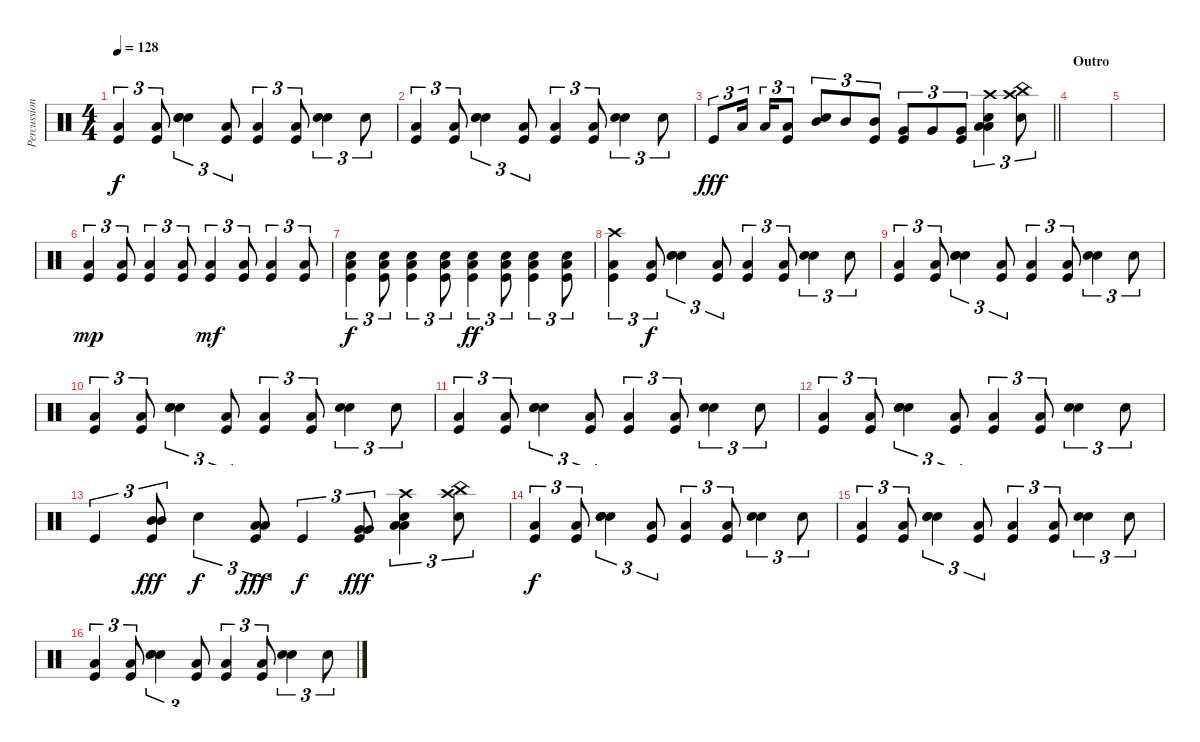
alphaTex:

\track ("Percussion" "Percussion") {instrument percussion}
\staff {score}
\articulation defaults
\ts (4 4)
\tempo 128
\clef neutral
\ks c
("Low Floor Tom (hit)" "Kick (hit)").4{tu (3 2) dy f} ("Low Floor Tom (hit)" "Kick (hit)").8{tu (3 2)} ("Hand Clap (hit)" "Electric Snare (hit)" "Snare (hit) 2").4{tu (3 2)} ("Low Floor Tom (hit)" "Kick (hit)").8{tu (3 2)} ("Low Floor Tom (hit)" "Kick (hit)").4{tu (3 2)} ("Low Floor Tom (hit)" "Kick (hit)").8{tu (3 2)} ("Hand Clap (hit)" "Electric Snare (hit)").4{tu (3 2)} "Hand Clap (hit)".8{tu (3 2)} |
("Low Floor Tom (hit)" "Kick (hit)").4{tu (3 2)} ("Low Floor Tom (hit)" "Kick (hit)").8{tu (3 2)} ("Hand Clap (hit)" "Electric Snare (hit)" "Snare (hit) 2").4{tu (3 2)} ("Low Floor Tom (hit)" "Kick (hit)").8{tu (3 2)} ("Low Floor Tom (hit)" "Kick (hit)").4{tu (3 2)} ("Low Floor Tom (hit)" "Kick (hit)").8{tu (3 2)} ("Hand Clap (hit)" "Electric Snare (hit)").4{tu (3 2)} "Hand Clap (hit)".8{tu (3 2)} |
\barLineRight lightlight "Kick (hit)".8{tu (3 2) dy fff} "Low Tom (hit)".16{tu (3 2) beam splitsecondary} "Low Tom (hit)".16{tu (3 2)}
("Low Tom (hit)" "Kick (hit)").8{tu (3 2)} ("Hand Clap (hit)" "Mid Tom (hit)").8{tu (3 2)} "Mid Tom (hit)".8{tu (3 2)} ("Mid Tom (hit)" "Kick (hit)").8{tu (3 2)} ("Very Low Tom (hit)" "Kick (hit)").8{tu (3 2)} "Very Low Tom (hit)".8{tu (3 2)} ("Very Low Tom (hit)" "Kick (hit)").8{tu (3 2)} ("Crash high (hit)" "Hand Clap (hit)" "Low Floor Tom (hit)" "Low Floor Tom (hit)").4{tu (3 2)} ("Crash high (hit)" "Hand Clap (hit)" "China (hit)").8{tu (3 2)} |
\section ("" "Outro")
|
|
("Low Floor Tom (hit)" "Kick (hit)").4{tu (3 2) dy mp} ("Low Floor Tom (hit)" "Kick (hit)").8{tu (3 2)} ("Low Floor Tom (hit)" "Kick (hit)").4{tu (3 2)} ("Low Floor Tom (hit)" "Kick (hit)").8{tu (3 2)} ("Low Floor Tom (hit)" "Kick (hit)").4{tu (3 2) dy mf} ("Low Floor Tom (hit)" "Kick (hit)").8{tu (3 2)} ("Low Floor Tom (hit)" "Kick (hit)").4{tu (3 2)} ("Low Floor Tom (hit)" "Kick (hit)").8{tu (3 2)} |
("Electric Snare (hit)" "Low Floor Tom (hit)" "Kick (hit)").4{tu (3 2) dy f} ("Electric Snare (hit)" "Low Floor Tom (hit)" "Kick (hit)").8{tu (3 2)} ("Electric Snare (hit)" "Low Floor Tom (hit)" "Kick (hit)").4{tu (3 2)} ("Electric Snare (hit)" "Low Floor Tom (hit)" "Kick (hit)").8{tu (3 2)} ("Electric Snare (hit)" "Low Floor Tom (hit)" "Kick (hit)").4{tu (3 2) dy ff} ("Electric Snare (hit)" "Low Floor Tom (hit)" "Kick (hit)").8{tu (3 2)} ("Electric Snare (hit)" "Low Floor Tom (hit)" "Kick (hit)").4{tu (3 2)} ("Electric Snare (hit)" "Low Floor Tom (hit)" "Kick (hit)").8{tu (3 2)} |
("Crash high (hit)" "Low Floor Tom (hit)" "Kick (hit)").4{tu (3 2)} ("Low Floor Tom (hit)" "Kick (hit)").8{tu (3 2) dy f} ("Hand Clap (hit)" "Electric Snare (hit)" "Snare (hit) 2").4{tu (3 2)} ("Low Floor Tom (hit)" "Kick (hit)").8{tu (3 2)} ("Low Floor Tom (hit)" "Kick (hit)").4{tu (3 2)} ("Low Floor Tom (hit)" "Kick (hit)").8{tu (3 2)} ("Hand Clap (hit)" "Electric Snare (hit)").4{tu (3 2)} "Hand Clap (hit)".8{tu (3 2)} |
("Low Floor Tom (hit)" "Kick (hit)").4{tu (3 2)} ("Low Floor Tom (hit)" "Kick (hit)").8{tu (3 2)} ("Hand Clap (hit)" "Electric Snare (hit)" "Snare (hit) 2").4{tu (3 2)} ("Low Floor Tom (hit)" "Kick (hit)").8{tu (3 2)} ("Low Floor Tom (hit)" "Kick (hit)").4{tu (3 2)} ("Low Floor Tom (hit)" "Kick (hit)").8{tu (3 2)} ("Hand Clap (hit)" "Electric Snare (hit)").4{tu (3 2)} "Hand Clap (hit)".8{tu (3 2)} |
("Low Floor Tom (hit)" "Kick (hit)").4{tu (3 2)} ("Low Floor Tom (hit)" "Kick (hit)").8{tu (3 2)} ("Hand Clap (hit)" "Electric Snare (hit)" "Snare (hit) 2").4{tu (3 2)} ("Low Floor Tom (hit)" "Kick (hit)").8{tu (3 2)} ("Low Floor Tom (hit)" "Kick (hit)").4{tu (3 2)} ("Low Floor Tom (hit)" "Kick (hit)").8{tu (3 2)} ("Hand Clap (hit)" "Electric Snare (hit)").4{tu (3 2)} "Hand Clap (hit)".8{tu (3 2)} |
("Low Floor Tom (hit)" "Kick (hit)").4{tu (3 2)} ("Low Floor Tom (hit)" "Kick (hit)").8{tu (3 2)} ("Hand Clap (hit)" "Electric Snare (hit)" "Snare (hit) 2").4{tu (3 2)} ("Low Floor Tom (hit)" "Kick (hit)").8{tu (3 2)} ("Low Floor Tom (hit)" "Kick (hit)").4{tu (3 2)} ("Low Floor Tom (hit)" "Kick (hit)").8{tu (3 2)} ("Hand Clap (hit)" "Electric Snare (hit)").4{tu (3 2)} "Hand Clap (hit)".8{tu (3 2)} |
("Low Floor Tom (hit)" "Kick (hit)").4{tu (3 2)} ("Low Floor Tom (hit)" "Kick (hit)").8{tu (3 2)} ("Hand Clap (hit)" "Electric Snare (hit)" "Snare (hit) 2").4{tu (3 2)} ("Low Floor Tom (hit)" "Kick (hit)").8{tu (3 2)} ("Low Floor Tom (hit)" "Kick (hit)").4{tu (3 2)} ("Low Floor Tom (hit)" "Kick (hit)").8{tu (3 2)} ("Hand Clap (hit)" "Electric Snare (hit)").4{tu (3 2)} "Hand Clap (hit)".8{tu (3 2)} |
"Kick (hit)".4{tu (3 2)} ("Mid Tom (hit)" "Mid Tom (hit)" "Kick (hit)").8{tu (3 2) dy fff} "Hand Clap (hit)".4{tu (3 2) dy f} ("Low Tom (hit)" "Low Tom (hit)" "Kick (hit)").8{tu (3 2) dy fff} "Kick (hit)".4{tu (3 2) dy f} ("Very Low Tom (hit)" "Very Low Tom (hit)" "Kick (hit)").8{tu (3 2) dy fff} ("Crash high (hit)" "Hand Clap (hit)" "Low Floor Tom (hit)" "Low Floor Tom (hit)").4{tu (3 2)} ("Crash high (hit)" "Hand Clap (hit)" "China (hit)").8{tu (3 2)} |
("Low Floor Tom (hit)" "Kick (hit)").4{tu (3 2) dy f} ("Low Floor Tom (hit)" "Kick (hit)").8{tu (3 2)} ("Hand Clap (hit)" "Electric Snare (hit)" "Snare (hit) 2").4{tu (3 2)} ("Low Floor Tom (hit)" "Kick (hit)").8{tu (3 2)} ("Low Floor Tom (hit)" "Kick (hit)").4{tu (3 2)} ("Low Floor Tom (hit)" "Kick (hit)").8{tu (3 2)} ("Hand Clap (hit)" "Electric Snare (hit)").4{tu (3 2)} "Hand Clap (hit)".8{tu (3 2)} |
("Low Floor Tom (hit)" "Kick (hit)").4{tu (3 2)} ("Low Floor Tom (hit)" "Kick (hit)").8{tu (3 2)} ("Hand Clap (hit)" "Electric Snare (hit)" "Snare (hit) 2").4{tu (3 2)} ("Low Floor Tom (hit)" "Kick (hit)").8{tu (3 2)} ("Low Floor Tom (hit)" "Kick (hit)").4{tu (3 2)} ("Low Floor Tom (hit)" "Kick (hit)").8{tu (3 2)} ("Hand Clap (hit)" "Electric Snare (hit)").4{tu (3 2)} "Hand Clap (hit)".8{tu (3 2)} |
("Low Floor Tom (hit)" "Kick (hit)").4{tu (3 2)} ("Low Floor Tom (hit)" "Kick (hit)").8{tu (3 2)} ("Hand Clap (hit)" "Electric Snare (hit)" "Snare (hit) 2").4{tu (3 2)} ("Low Floor Tom (hit)" "Kick (hit)").8{tu (3 2)} ("Low Floor Tom (hit)" "Kick (hit)").4{tu (3 2)} ("Low Floor Tom (hit)" "Kick (hit)").8{tu (3 2)} ("Hand Clap (hit)" "Electric Snare (hit)").4{tu (3 2)} "Hand Clap (hit)".8{tu (3 2)}
